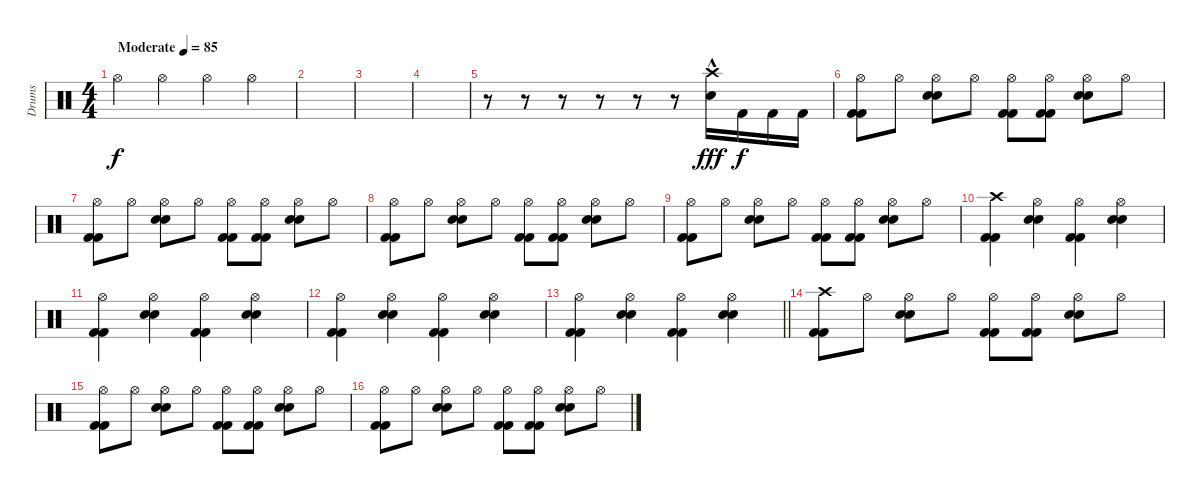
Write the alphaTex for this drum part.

\track ("Drums" "Drums") {instrument percussion}
\staff {score}
\articulation defaults
\ts (4 4)
\tempo (85 "Moderate")
\clef neutral
\ks c "Hi-Hat (open)".4{dy f} "Hi-Hat (open)".4 "Hi-Hat (open)".4 "Hi-Hat (open)".4
|
|
|
|
r.8 r.8 r.8 r.8 r.8 r.8 ("Electric Snare (hit)"{hac} "Crash high (hit)").16{dy fff} "Kick (hit) 2".16{dy f} "Kick (hit) 2".16 "Kick (hit) 2".16 |
("Hi-Hat (open)" "Kick (hit) 2" "Kick (hit) 2").8 "Hi-Hat (open)".8 ("Electric Snare (hit)" "Hi-Hat (open)" "Electric Snare (hit)").8 "Hi-Hat (open)".8 ("Hi-Hat (open)" "Kick (hit) 2" "Kick (hit) 2").8 ("Hi-Hat (open)" "Kick (hit) 2" "Kick (hit) 2").8 ("Hi-Hat (open)" "Electric Snare (hit)" "Electric Snare (hit)").8 "Hi-Hat (open)".8 |
("Hi-Hat (open)" "Kick (hit) 2" "Kick (hit) 2").8 "Hi-Hat (open)".8 ("Electric Snare (hit)" "Hi-Hat (open)" "Electric Snare (hit)").8 "Hi-Hat (open)".8 ("Hi-Hat (open)" "Kick (hit) 2" "Kick (hit) 2").8 ("Hi-Hat (open)" "Kick (hit) 2" "Kick (hit) 2").8 ("Hi-Hat (open)" "Electric Snare (hit)" "Electric Snare (hit)").8 "Hi-Hat (open)".8 |
("Hi-Hat (open)" "Kick (hit) 2" "Kick (hit) 2").8 "Hi-Hat (open)".8 ("Electric Snare (hit)" "Hi-Hat (open)" "Electric Snare (hit)").8 "Hi-Hat (open)".8 ("Hi-Hat (open)" "Kick (hit) 2" "Kick (hit) 2").8 ("Hi-Hat (open)" "Kick (hit) 2" "Kick (hit) 2").8 ("Hi-Hat (open)" "Electric Snare (hit)" "Electric Snare (hit)").8 "Hi-Hat (open)".8 |
("Hi-Hat (open)" "Kick (hit) 2" "Kick (hit) 2").8 "Hi-Hat (open)".8 ("Electric Snare (hit)" "Hi-Hat (open)" "Electric Snare (hit)").8 "Hi-Hat (open)".8 ("Hi-Hat (open)" "Kick (hit) 2" "Kick (hit) 2").8 ("Hi-Hat (open)" "Kick (hit) 2" "Kick (hit) 2").8 ("Hi-Hat (open)" "Electric Snare (hit)" "Electric Snare (hit)").8 "Hi-Hat (open)".8 |
("Crash high (hit)" "Kick (hit) 2" "Kick (hit) 2").4 ("Electric Snare (hit)" "Electric Snare (hit)" "Hi-Hat (open)").4 ("Hi-Hat (open)" "Kick (hit) 2" "Kick (hit) 2").4 ("Electric Snare (hit)" "Electric Snare (hit)" "Hi-Hat (open)").4 |
("Hi-Hat (open)" "Kick (hit) 2" "Kick (hit) 2").4 ("Electric Snare (hit)" "Electric Snare (hit)" "Hi-Hat (open)").4 ("Hi-Hat (open)" "Kick (hit) 2" "Kick (hit) 2").4 ("Electric Snare (hit)" "Electric Snare (hit)" "Hi-Hat (open)").4 |
("Hi-Hat (open)" "Kick (hit) 2" "Kick (hit) 2").4 ("Electric Snare (hit)" "Electric Snare (hit)" "Hi-Hat (open)").4 ("Hi-Hat (open)" "Kick (hit) 2" "Kick (hit) 2").4 ("Electric Snare (hit)" "Electric Snare (hit)" "Hi-Hat (open)").4 |
\barLineRight lightlight
("Hi-Hat (open)" "Kick (hit) 2" "Kick (hit) 2").4 ("Electric Snare (hit)" "Electric Snare (hit)" "Hi-Hat (open)").4 ("Hi-Hat (open)" "Kick (hit) 2" "Kick (hit) 2").4 ("Electric Snare (hit)" "Electric Snare (hit)" "Hi-Hat (open)").4 |
("Crash high (hit)" "Kick (hit) 2" "Kick (hit) 2").8 "Hi-Hat (open)".8 ("Electric Snare (hit)" "Hi-Hat (open)" "Electric Snare (hit)").8 "Hi-Hat (open)".8 ("Hi-Hat (open)" "Kick (hit) 2" "Kick (hit) 2").8 ("Hi-Hat (open)" "Kick (hit) 2" "Kick (hit) 2").8 ("Hi-Hat (open)" "Electric Snare (hit)" "Electric Snare (hit)").8 "Hi-Hat (open)".8 |
("Hi-Hat (open)" "Kick (hit) 2" "Kick (hit) 2").8 "Hi-Hat (open)".8 ("Electric Snare (hit)" "Hi-Hat (open)" "Electric Snare (hit)").8 "Hi-Hat (open)".8 ("Hi-Hat (open)" "Kick (hit) 2" "Kick (hit) 2").8 ("Hi-Hat (open)" "Kick (hit) 2" "Kick (hit) 2").8 ("Hi-Hat (open)" "Electric Snare (hit)" "Electric Snare (hit)").8 "Hi-Hat (open)".8 |
("Hi-Hat (open)" "Kick (hit) 2" "Kick (hit) 2").8 "Hi-Hat (open)".8 ("Electric Snare (hit)" "Hi-Hat (open)" "Electric Snare (hit)").8 "Hi-Hat (open)".8 ("Hi-Hat (open)" "Kick (hit) 2" "Kick (hit) 2").8 ("Hi-Hat (open)" "Kick (hit) 2" "Kick (hit) 2").8 ("Hi-Hat (open)" "Electric Snare (hit)" "Electric Snare (hit)").8 "Hi-Hat (open)".8
